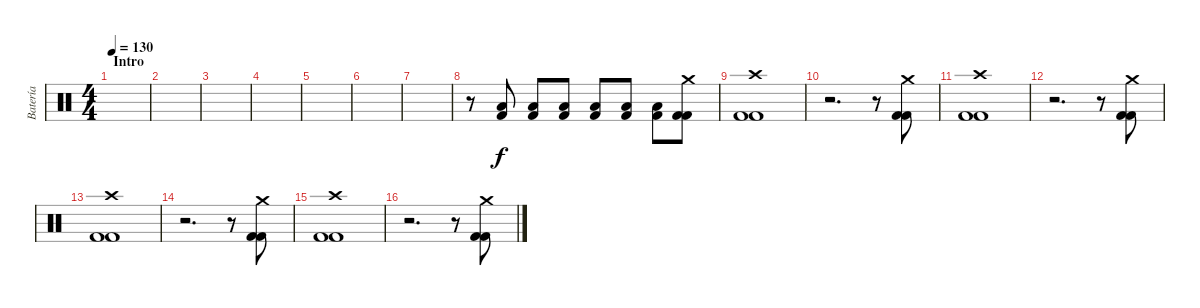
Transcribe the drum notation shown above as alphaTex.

\track ("Batería" "Batería") {instrument percussion}
\staff {score}
\articulation defaults
\ts (4 4)
\section ("" "Intro")
\tempo 130
\clef neutral
\ks c
|
|
|
|
|
|
|
r.8 ("Low Tom (hit)" "Kick (hit) 2").8 ("Low Tom (hit)" "Kick (hit) 2").8 ("Low Tom (hit)" "Kick (hit) 2").8 ("Low Tom (hit)" "Kick (hit) 2").8 ("Low Tom (hit)" "Kick (hit) 2").8 ("Low Tom (hit)" "Kick (hit) 2").8 ("Crash medium (hit)" "Kick (hit) 2" "Kick (hit) 2").8 |
("Crash high (hit)" "Kick (hit) 2" "Kick (hit) 2").1 |
r.2{d} r.8 ("Crash medium (hit)" "Kick (hit) 2" "Kick (hit) 2").8 |
("Crash high (hit)" "Kick (hit) 2" "Kick (hit) 2").1 |
r.2{d} r.8 ("Crash medium (hit)" "Kick (hit) 2" "Kick (hit) 2").8 |
("Crash high (hit)" "Kick (hit) 2" "Kick (hit) 2").1 |
r.2{d} r.8 ("Crash medium (hit)" "Kick (hit) 2" "Kick (hit) 2").8 |
("Crash high (hit)" "Kick (hit) 2" "Kick (hit) 2").1 |
r.2{d} r.8 ("Crash medium (hit)" "Kick (hit) 2" "Kick (hit) 2").8
